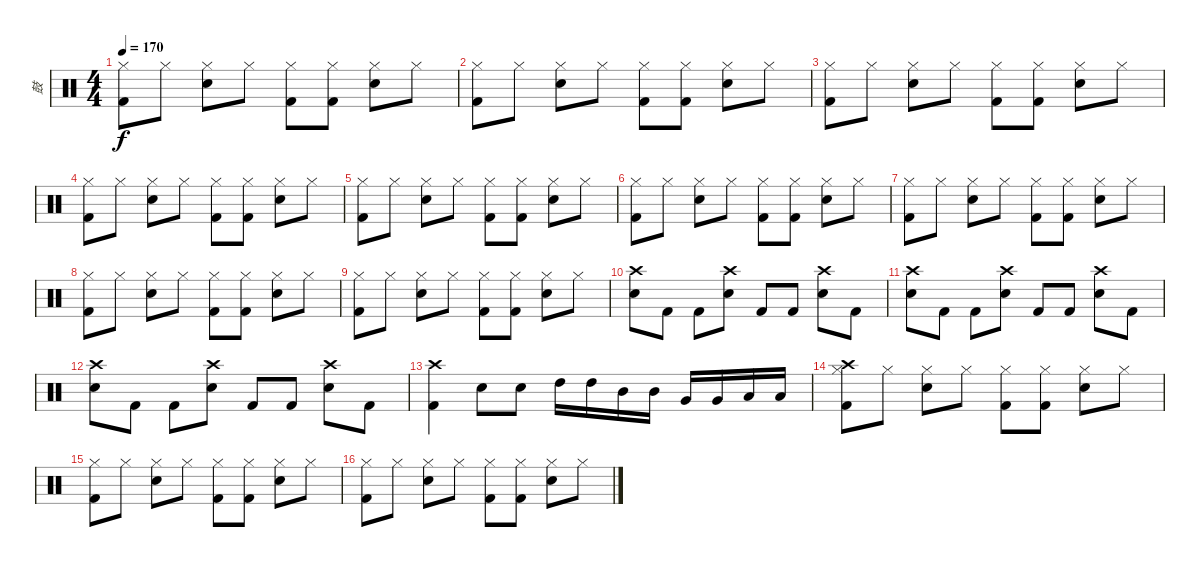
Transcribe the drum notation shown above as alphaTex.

\track ("鼓" "鼓") {instrument percussion}
\staff {score}
\articulation defaults
\ts (4 4)
\tempo 170
\clef neutral
\ks c
("Hi-Hat (closed)" "Kick (hit) 2").8{dy f} "Hi-Hat (closed)".8 ("Hi-Hat (closed)" "Electric Snare (hit)").8 "Hi-Hat (closed)".8 ("Hi-Hat (closed)" "Kick (hit) 2").8 ("Hi-Hat (closed)" "Kick (hit) 2").8 ("Hi-Hat (closed)" "Electric Snare (hit)").8 "Hi-Hat (closed)".8 |
("Hi-Hat (closed)" "Kick (hit) 2").8 "Hi-Hat (closed)".8 ("Hi-Hat (closed)" "Electric Snare (hit)").8 "Hi-Hat (closed)".8 ("Hi-Hat (closed)" "Kick (hit) 2").8 ("Hi-Hat (closed)" "Kick (hit) 2").8 ("Hi-Hat (closed)" "Electric Snare (hit)").8 "Hi-Hat (closed)".8 |
("Hi-Hat (closed)" "Kick (hit) 2").8 "Hi-Hat (closed)".8 ("Hi-Hat (closed)" "Electric Snare (hit)").8 "Hi-Hat (closed)".8 ("Hi-Hat (closed)" "Kick (hit) 2").8 ("Hi-Hat (closed)" "Kick (hit) 2").8 ("Hi-Hat (closed)" "Electric Snare (hit)").8 "Hi-Hat (closed)".8 |
("Hi-Hat (closed)" "Kick (hit) 2").8 "Hi-Hat (closed)".8 ("Hi-Hat (closed)" "Electric Snare (hit)").8 "Hi-Hat (closed)".8 ("Hi-Hat (closed)" "Kick (hit) 2").8 ("Hi-Hat (closed)" "Kick (hit) 2").8 ("Hi-Hat (closed)" "Electric Snare (hit)").8 "Hi-Hat (closed)".8 |
("Hi-Hat (closed)" "Kick (hit) 2").8 "Hi-Hat (closed)".8 ("Hi-Hat (closed)" "Electric Snare (hit)").8 "Hi-Hat (closed)".8 ("Hi-Hat (closed)" "Kick (hit) 2").8 ("Hi-Hat (closed)" "Kick (hit) 2").8 ("Hi-Hat (closed)" "Electric Snare (hit)").8 "Hi-Hat (closed)".8 |
("Hi-Hat (closed)" "Kick (hit) 2").8 "Hi-Hat (closed)".8 ("Hi-Hat (closed)" "Electric Snare (hit)").8 "Hi-Hat (closed)".8 ("Hi-Hat (closed)" "Kick (hit) 2").8 ("Hi-Hat (closed)" "Kick (hit) 2").8 ("Hi-Hat (closed)" "Electric Snare (hit)").8 "Hi-Hat (closed)".8 |
("Hi-Hat (closed)" "Kick (hit) 2").8 "Hi-Hat (closed)".8 ("Hi-Hat (closed)" "Electric Snare (hit)").8 "Hi-Hat (closed)".8 ("Hi-Hat (closed)" "Kick (hit) 2").8 ("Hi-Hat (closed)" "Kick (hit) 2").8 ("Hi-Hat (closed)" "Electric Snare (hit)").8 "Hi-Hat (closed)".8 |
("Hi-Hat (closed)" "Kick (hit) 2").8 "Hi-Hat (closed)".8 ("Hi-Hat (closed)" "Electric Snare (hit)").8 "Hi-Hat (closed)".8 ("Hi-Hat (closed)" "Kick (hit) 2").8 ("Hi-Hat (closed)" "Kick (hit) 2").8 ("Hi-Hat (closed)" "Electric Snare (hit)").8 "Hi-Hat (closed)".8 |
("Hi-Hat (closed)" "Kick (hit) 2").8 "Hi-Hat (closed)".8 ("Hi-Hat (closed)" "Electric Snare (hit)").8 "Hi-Hat (closed)".8 ("Hi-Hat (closed)" "Kick (hit) 2").8 ("Hi-Hat (closed)" "Kick (hit) 2").8 ("Hi-Hat (closed)" "Electric Snare (hit)").8 "Hi-Hat (closed)".8 |
("Crash high (hit)" "Electric Snare (hit)").8 "Kick (hit) 2".8 "Kick (hit) 2".8 ("Crash high (hit)" "Electric Snare (hit)").8 "Kick (hit) 2".8 "Kick (hit) 2".8 ("Crash high (hit)" "Electric Snare (hit)").8 "Kick (hit) 2".8 |
("Crash high (hit)" "Electric Snare (hit)").8 "Kick (hit) 2".8 "Kick (hit) 2".8 ("Crash high (hit)" "Electric Snare (hit)").8 "Kick (hit) 2".8 "Kick (hit) 2".8 ("Crash high (hit)" "Electric Snare (hit)").8 "Kick (hit) 2".8 |
("Crash high (hit)" "Electric Snare (hit)").8 "Kick (hit) 2".8 "Kick (hit) 2".8 ("Crash high (hit)" "Electric Snare (hit)").8 "Kick (hit) 2".8 "Kick (hit) 2".8 ("Crash high (hit)" "Electric Snare (hit)").8 "Kick (hit) 2".8 |
("Crash high (hit)" "Kick (hit) 2").4 "Electric Snare (hit)".8 "Electric Snare (hit)".8 "High Tom (hit)".16 "High Tom (hit)".16 "Mid Tom (hit)".16 "Mid Tom (hit)".16 "Very Low Tom (hit)".16 "Very Low Tom (hit)".16 "Low Floor Tom (hit)".16 "Low Floor Tom (hit)".16 |
("Crash high (hit)" "Hi-Hat (closed)" "Kick (hit) 2").8 "Hi-Hat (closed)".8 ("Hi-Hat (closed)" "Electric Snare (hit)").8 "Hi-Hat (closed)".8 ("Hi-Hat (closed)" "Kick (hit) 2").8 ("Hi-Hat (closed)" "Kick (hit) 2").8 ("Hi-Hat (closed)" "Electric Snare (hit)").8 "Hi-Hat (closed)".8 |
("Hi-Hat (closed)" "Kick (hit) 2").8 "Hi-Hat (closed)".8 ("Hi-Hat (closed)" "Electric Snare (hit)").8 "Hi-Hat (closed)".8 ("Hi-Hat (closed)" "Kick (hit) 2").8 ("Hi-Hat (closed)" "Kick (hit) 2").8 ("Hi-Hat (closed)" "Electric Snare (hit)").8 "Hi-Hat (closed)".8 |
("Hi-Hat (closed)" "Kick (hit) 2").8 "Hi-Hat (closed)".8 ("Hi-Hat (closed)" "Electric Snare (hit)").8 "Hi-Hat (closed)".8 ("Hi-Hat (closed)" "Kick (hit) 2").8 ("Hi-Hat (closed)" "Kick (hit) 2").8 ("Hi-Hat (closed)" "Electric Snare (hit)").8 "Hi-Hat (closed)".8
